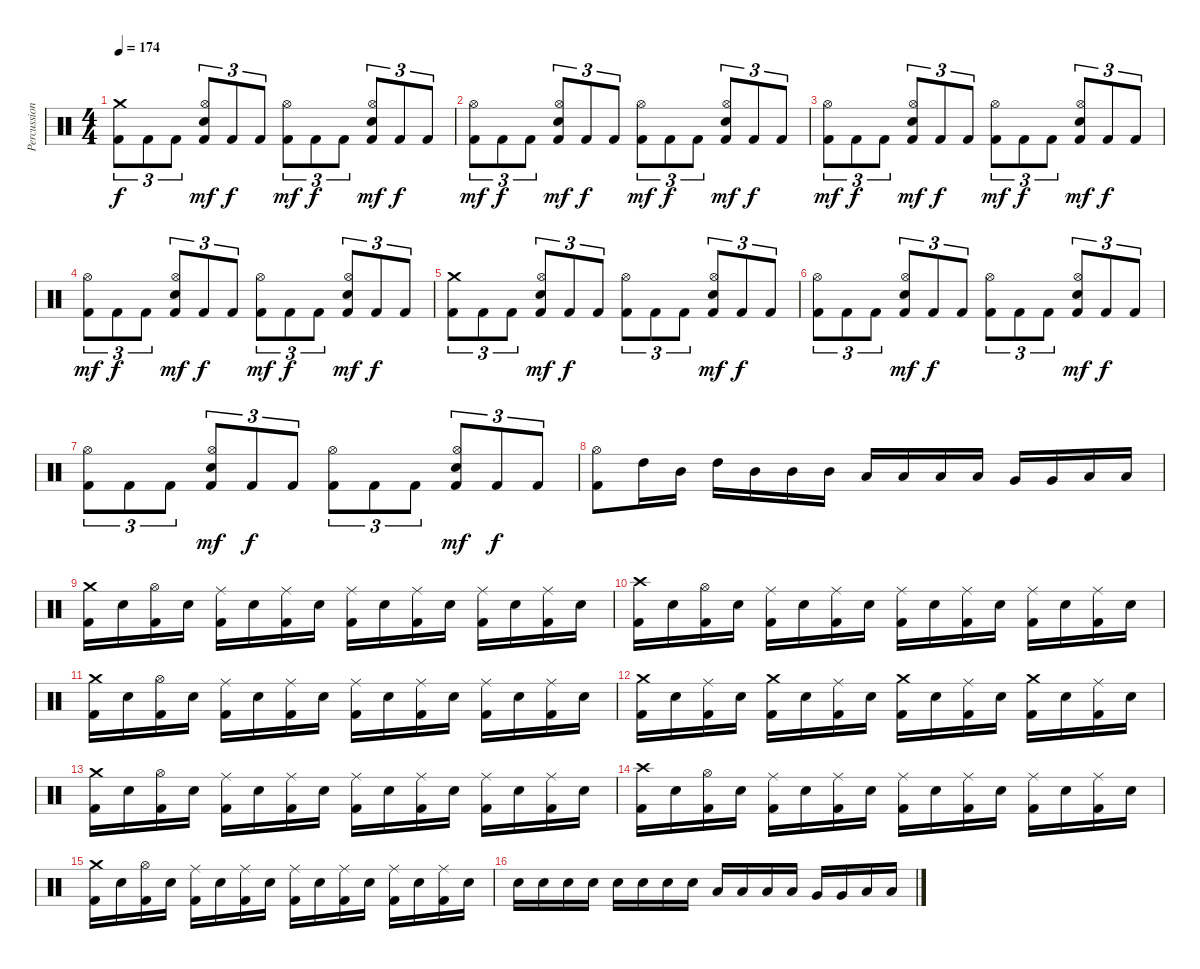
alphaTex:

\track ("Percussion" "Percussion") {instrument percussion}
\staff {score}
\articulation defaults
\ts (4 4)
\tempo 174
\clef neutral
\ks c
("Crash medium (hit)" "Kick (hit) 2").8{tu (3 2) dy f} "Kick (hit) 2".8{tu (3 2)} "Kick (hit) 2".8{tu (3 2)} ("Hi-Hat (open)" "Electric Snare (hit)" "Kick (hit) 2").8{tu (3 2) dy mf} "Kick (hit) 2".8{tu (3 2) dy f} "Kick (hit) 2".8{tu (3 2)} ("Hi-Hat (open)" "Kick (hit) 2").8{tu (3 2) dy mf} "Kick (hit) 2".8{tu (3 2) dy f} "Kick (hit) 2".8{tu (3 2)} ("Hi-Hat (open)" "Electric Snare (hit)" "Kick (hit) 2").8{tu (3 2) dy mf} "Kick (hit) 2".8{tu (3 2) dy f} "Kick (hit) 2".8{tu (3 2)} |
("Hi-Hat (open)" "Kick (hit) 2").8{tu (3 2) dy mf} "Kick (hit) 2".8{tu (3 2) dy f} "Kick (hit) 2".8{tu (3 2)} ("Hi-Hat (open)" "Electric Snare (hit)" "Kick (hit) 2").8{tu (3 2) dy mf} "Kick (hit) 2".8{tu (3 2) dy f} "Kick (hit) 2".8{tu (3 2)} ("Hi-Hat (open)" "Kick (hit) 2").8{tu (3 2) dy mf} "Kick (hit) 2".8{tu (3 2) dy f} "Kick (hit) 2".8{tu (3 2)} ("Hi-Hat (open)" "Electric Snare (hit)" "Kick (hit) 2").8{tu (3 2) dy mf} "Kick (hit) 2".8{tu (3 2) dy f} "Kick (hit) 2".8{tu (3 2)} |
("Hi-Hat (open)" "Kick (hit) 2").8{tu (3 2) dy mf} "Kick (hit) 2".8{tu (3 2) dy f} "Kick (hit) 2".8{tu (3 2)} ("Hi-Hat (open)" "Electric Snare (hit)" "Kick (hit) 2").8{tu (3 2) dy mf} "Kick (hit) 2".8{tu (3 2) dy f} "Kick (hit) 2".8{tu (3 2)} ("Hi-Hat (open)" "Kick (hit) 2").8{tu (3 2) dy mf} "Kick (hit) 2".8{tu (3 2) dy f} "Kick (hit) 2".8{tu (3 2)} ("Hi-Hat (open)" "Electric Snare (hit)" "Kick (hit) 2").8{tu (3 2) dy mf} "Kick (hit) 2".8{tu (3 2) dy f} "Kick (hit) 2".8{tu (3 2)} |
("Hi-Hat (open)" "Kick (hit) 2").8{tu (3 2) dy mf} "Kick (hit) 2".8{tu (3 2) dy f} "Kick (hit) 2".8{tu (3 2)} ("Hi-Hat (open)" "Electric Snare (hit)" "Kick (hit) 2").8{tu (3 2) dy mf} "Kick (hit) 2".8{tu (3 2) dy f} "Kick (hit) 2".8{tu (3 2)} ("Hi-Hat (open)" "Kick (hit) 2").8{tu (3 2) dy mf} "Kick (hit) 2".8{tu (3 2) dy f} "Kick (hit) 2".8{tu (3 2)} ("Hi-Hat (open)" "Electric Snare (hit)" "Kick (hit) 2").8{tu (3 2) dy mf} "Kick (hit) 2".8{tu (3 2) dy f} "Kick (hit) 2".8{tu (3 2)} |
("Crash medium (hit)" "Kick (hit) 2").8{tu (3 2)} "Kick (hit) 2".8{tu (3 2)} "Kick (hit) 2".8{tu (3 2)} ("Hi-Hat (open)" "Electric Snare (hit)" "Kick (hit) 2").8{tu (3 2) dy mf} "Kick (hit) 2".8{tu (3 2) dy f} "Kick (hit) 2".8{tu (3 2)} ("Hi-Hat (open)" "Kick (hit) 2").8{tu (3 2)} "Kick (hit) 2".8{tu (3 2)} "Kick (hit) 2".8{tu (3 2)} ("Hi-Hat (open)" "Electric Snare (hit)" "Kick (hit) 2").8{tu (3 2) dy mf} "Kick (hit) 2".8{tu (3 2) dy f} "Kick (hit) 2".8{tu (3 2)} |
("Hi-Hat (open)" "Kick (hit) 2").8{tu (3 2)} "Kick (hit) 2".8{tu (3 2)} "Kick (hit) 2".8{tu (3 2)} ("Hi-Hat (open)" "Electric Snare (hit)" "Kick (hit) 2").8{tu (3 2) dy mf} "Kick (hit) 2".8{tu (3 2) dy f} "Kick (hit) 2".8{tu (3 2)} ("Hi-Hat (open)" "Kick (hit) 2").8{tu (3 2)} "Kick (hit) 2".8{tu (3 2)} "Kick (hit) 2".8{tu (3 2)} ("Hi-Hat (open)" "Electric Snare (hit)" "Kick (hit) 2").8{tu (3 2) dy mf} "Kick (hit) 2".8{tu (3 2) dy f} "Kick (hit) 2".8{tu (3 2)} |
("Hi-Hat (open)" "Kick (hit) 2").8{tu (3 2)} "Kick (hit) 2".8{tu (3 2)} "Kick (hit) 2".8{tu (3 2)} ("Hi-Hat (open)" "Electric Snare (hit)" "Kick (hit) 2").8{tu (3 2) dy mf} "Kick (hit) 2".8{tu (3 2) dy f} "Kick (hit) 2".8{tu (3 2)} ("Hi-Hat (open)" "Kick (hit) 2").8{tu (3 2)} "Kick (hit) 2".8{tu (3 2)} "Kick (hit) 2".8{tu (3 2)} ("Hi-Hat (open)" "Electric Snare (hit)" "Kick (hit) 2").8{tu (3 2) dy mf} "Kick (hit) 2".8{tu (3 2) dy f} "Kick (hit) 2".8{tu (3 2)} |
("Hi-Hat (open)" "Kick (hit) 2").8 "High Tom (hit)".16 "Mid Tom (hit)".16 "High Tom (hit)".16 "Mid Tom (hit)".16 "Mid Tom (hit)".16 "Mid Tom (hit)".16 "Low Tom (hit)".16 "Low Tom (hit)".16 "Low Tom (hit)".16 "Low Tom (hit)".16 "Very Low Tom (hit)".16 "Very Low Tom (hit)".16 "Low Floor Tom (hit)".16 "Low Floor Tom (hit)".16 |
("Crash medium (hit)" "Kick (hit) 2").16 "Electric Snare (hit)".16 ("Hi-Hat (open)" "Kick (hit) 2").16 "Electric Snare (hit)".16 ("Ride (middle)" "Kick (hit) 2").16 "Electric Snare (hit)".16 ("Ride (middle)" "Kick (hit) 2").16 "Electric Snare (hit)".16 ("Ride (middle)" "Kick (hit) 2").16 "Electric Snare (hit)".16 ("Ride (middle)" "Kick (hit) 2").16 "Electric Snare (hit)".16 ("Ride (middle)" "Kick (hit) 2").16 "Electric Snare (hit)".16 ("Ride (middle)" "Kick (hit) 2").16 "Electric Snare (hit)".16 |
("Crash high (hit)" "Kick (hit) 2").16 "Electric Snare (hit)".16 ("Hi-Hat (open)" "Kick (hit) 2").16 "Electric Snare (hit)".16 ("Ride (middle)" "Kick (hit) 2").16 "Electric Snare (hit)".16 ("Ride (middle)" "Kick (hit) 2").16 "Electric Snare (hit)".16 ("Ride (middle)" "Kick (hit) 2").16 "Electric Snare (hit)".16 ("Ride (middle)" "Kick (hit) 2").16 "Electric Snare (hit)".16 ("Ride (middle)" "Kick (hit) 2").16 "Electric Snare (hit)".16 ("Ride (middle)" "Kick (hit) 2").16 "Electric Snare (hit)".16 |
("Crash medium (hit)" "Kick (hit) 2").16 "Electric Snare (hit)".16 ("Hi-Hat (open)" "Kick (hit) 2").16 "Electric Snare (hit)".16 ("Ride (middle)" "Kick (hit) 2").16 "Electric Snare (hit)".16 ("Ride (middle)" "Kick (hit) 2").16 "Electric Snare (hit)".16 ("Ride (middle)" "Kick (hit) 2").16 "Electric Snare (hit)".16 ("Ride (middle)" "Kick (hit) 2").16 "Electric Snare (hit)".16 ("Ride (middle)" "Kick (hit) 2").16 "Electric Snare (hit)".16 ("Ride (middle)" "Kick (hit) 2").16 "Electric Snare (hit)".16 |
("Crash medium (hit)" "Kick (hit) 2").16 "Electric Snare (hit)".16 ("Ride (middle)" "Kick (hit) 2").16 "Electric Snare (hit)".16 ("Crash medium (hit)" "Kick (hit) 2").16 "Electric Snare (hit)".16 ("Ride (middle)" "Kick (hit) 2").16 "Electric Snare (hit)".16 ("Crash medium (hit)" "Kick (hit) 2").16 "Electric Snare (hit)".16 ("Ride (middle)" "Kick (hit) 2").16 "Electric Snare (hit)".16 ("Crash medium (hit)" "Kick (hit) 2").16 "Electric Snare (hit)".16 ("Ride (middle)" "Kick (hit) 2").16 "Electric Snare (hit)".16 |
("Crash medium (hit)" "Kick (hit) 2").16 "Electric Snare (hit)".16 ("Hi-Hat (open)" "Kick (hit) 2").16 "Electric Snare (hit)".16 ("Ride (middle)" "Kick (hit) 2").16 "Electric Snare (hit)".16 ("Ride (middle)" "Kick (hit) 2").16 "Electric Snare (hit)".16 ("Ride (middle)" "Kick (hit) 2").16 "Electric Snare (hit)".16 ("Ride (middle)" "Kick (hit) 2").16 "Electric Snare (hit)".16 ("Ride (middle)" "Kick (hit) 2").16 "Electric Snare (hit)".16 ("Ride (middle)" "Kick (hit) 2").16 "Electric Snare (hit)".16 |
("Crash high (hit)" "Kick (hit) 2").16 "Electric Snare (hit)".16 ("Hi-Hat (open)" "Kick (hit) 2").16 "Electric Snare (hit)".16 ("Ride (middle)" "Kick (hit) 2").16 "Electric Snare (hit)".16 ("Ride (middle)" "Kick (hit) 2").16 "Electric Snare (hit)".16 ("Ride (middle)" "Kick (hit) 2").16 "Electric Snare (hit)".16 ("Ride (middle)" "Kick (hit) 2").16 "Electric Snare (hit)".16 ("Ride (middle)" "Kick (hit) 2").16 "Electric Snare (hit)".16 ("Ride (middle)" "Kick (hit) 2").16 "Electric Snare (hit)".16 |
("Crash medium (hit)" "Kick (hit) 2").16 "Electric Snare (hit)".16 ("Hi-Hat (open)" "Kick (hit) 2").16 "Electric Snare (hit)".16 ("Ride (middle)" "Kick (hit) 2").16 "Electric Snare (hit)".16 ("Ride (middle)" "Kick (hit) 2").16 "Electric Snare (hit)".16 ("Ride (middle)" "Kick (hit) 2").16 "Electric Snare (hit)".16 ("Ride (middle)" "Kick (hit) 2").16 "Electric Snare (hit)".16 ("Ride (middle)" "Kick (hit) 2").16 "Electric Snare (hit)".16 ("Ride (middle)" "Kick (hit) 2").16 "Electric Snare (hit)".16 |
"Electric Snare (hit)".16 "Electric Snare (hit)".16 "Electric Snare (hit)".16 "Electric Snare (hit)".16 "Electric Snare (hit)".16 "Electric Snare (hit)".16 "Electric Snare (hit)".16 "Electric Snare (hit)".16 "Low Tom (hit)".16 "Low Tom (hit)".16 "Low Tom (hit)".16 "Low Tom (hit)".16 "Very Low Tom (hit)".16 "Very Low Tom (hit)".16 "Low Floor Tom (hit)".16 "Low Floor Tom (hit)".16
